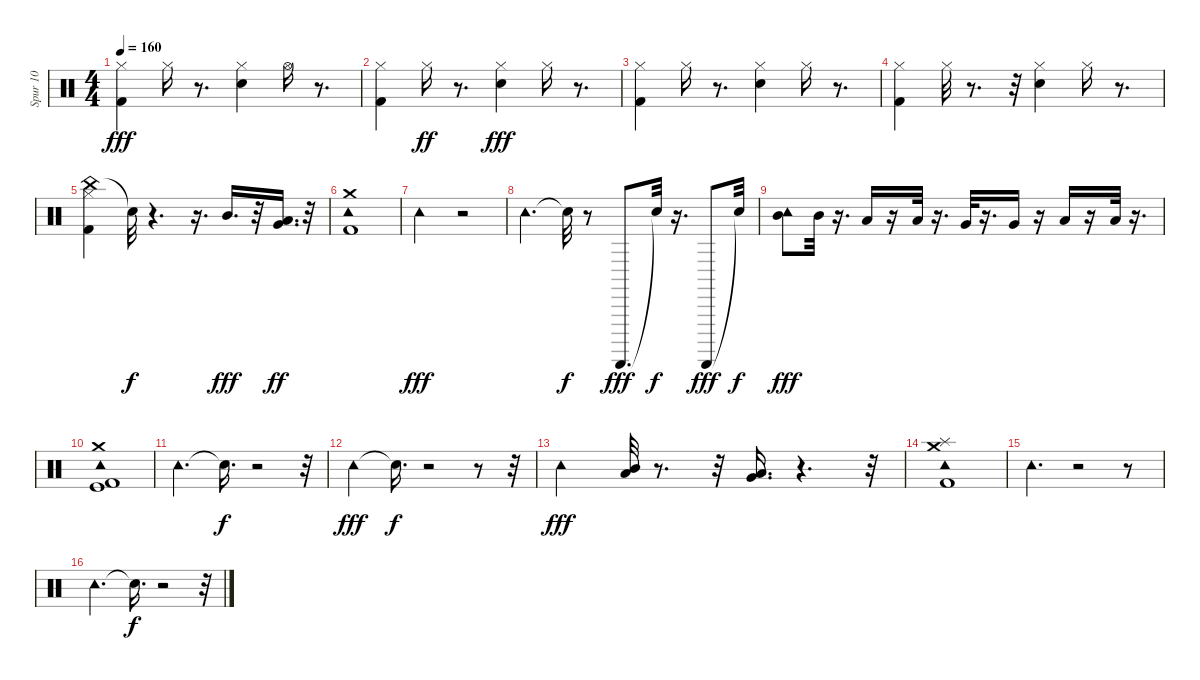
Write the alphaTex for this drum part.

\track ("Spur 10" "Spur 10") {instrument percussion}
\staff {score}
\articulation defaults
\ts (4 4)
\tempo 160
\clef neutral
\ks c
("Kick (hit) 2" "Hi-Hat (closed)").4{dy fff} "Hi-Hat (closed)".16 r.8{d} ("Snare (hit) 2" "Hi-Hat (closed)").4 "Hi-Hat (open)".16 r.8{d} |
("Kick (hit) 2" "Hi-Hat (closed)").4 "Hi-Hat (closed)".16{dy ff} r.8{d} ("Snare (hit) 2" "Hi-Hat (closed)").4{dy fff} "Hi-Hat (closed)".16 r.8{d} |
("Kick (hit) 2" "Hi-Hat (closed)").4 "Hi-Hat (closed)".16 r.8{d} ("Snare (hit) 2" "Hi-Hat (closed)").4 "Hi-Hat (closed)".16 r.8{d} |
("Kick (hit) 2" "Hi-Hat (closed)").4 "Hi-Hat (closed)".32 r.8{d} r.32 ("Snare (hit) 2" "Hi-Hat (closed)").4 "Hi-Hat (closed)".16 r.8{d} |
("China (hit)" "Kick (hit) 2" "Hi-Hat (closed)").4 "Snare (hit)"{t}.32{dy f} r.4{d} r.16{d} "Mid Tom (hit)".16{d dy fff} r.32 ("Low Tom (hit)" "Very Low Tom (hit)").16{d dy ff} r.32 |
("Tambourine (hit)" "Kick (hit) 2" "Crash medium (hit)").1 |
"Tambourine (hit)".2{dy fff} r.2 |
"Tambourine (hit)".4{d} "Snare (hit)"{t}.32{dy f} r.8 "Guiro (scrap-return)".8{d dy fff} "Snare (hit)"{t}.32{dy f} r.16{d} "Guiro (scrap-return)".8{dy fff} "Snare (hit)"{t}.32{dy f} |
("Tambourine (hit)" "Mid Tom (hit)").8{dy fff} "Mid Tom (hit)".32 r.16{d} "Low Tom (hit)".16 r.16 "Low Tom (hit)".32 r.16{d} "Very Low Tom (hit)".32 r.16{d} "Very Low Tom (hit)".16 r.16 "Low Floor Tom (hit)".16 r.16 "Low Floor Tom (hit)".32 r.16{d} |
("Tambourine (hit)" "Kick (hit)" "Kick (hit) 2" "Crash medium (hit)").1 |
"Tambourine (hit)".4{d} "Snare (hit)"{t}.16{d dy f} r.2 r.32 |
"Tambourine (hit)".4{dy fff} "Snare (hit)"{t}.16{d dy f} r.2 r.8 r.32 |
"Tambourine (hit)".4{dy fff} ("Low Tom (hit)" "Mid Tom (hit)").32 r.8{d} r.32 ("Very Low Tom (hit)" "Low Floor Tom (hit)").16{d} r.4{d} r.32 |
("Tambourine (hit)" "Kick (hit) 2" "Splash (hit)" "Crash medium (hit)").1 |
"Tambourine (hit)".4{d} r.2 r.8 |
"Tambourine (hit)".4{d} "Snare (hit)"{t}.16{d dy f} r.2 r.32
